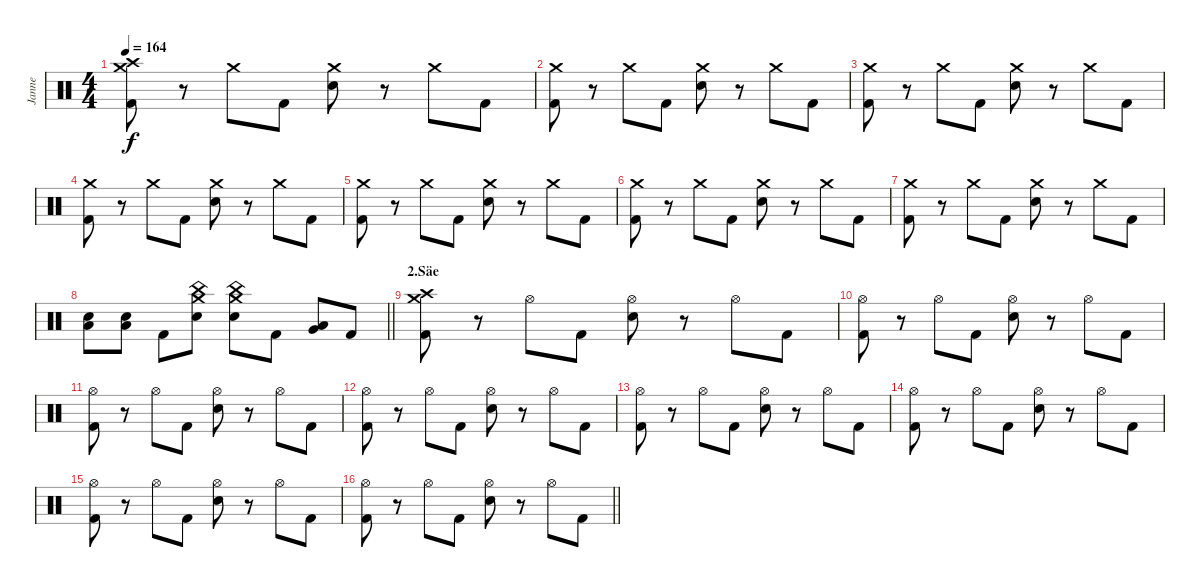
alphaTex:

\track ("Janne" "Janne") {instrument percussion}
\staff {score}
\articulation defaults
\ts (4 4)
\tempo 164
\clef neutral
\ks c
("Crash medium (hit)" "Crash high (hit)" "Kick (hit) 2").8{dy f} r.8 "Crash medium (hit)".8 "Kick (hit) 2".8 ("Crash medium (hit)" "Electric Snare (hit)").8 r.8 "Crash medium (hit)".8 "Kick (hit) 2".8 |
("Crash medium (hit)" "Kick (hit) 2").8 r.8 "Crash medium (hit)".8 "Kick (hit) 2".8 ("Crash medium (hit)" "Electric Snare (hit)").8 r.8 "Crash medium (hit)".8 "Kick (hit) 2".8 |
("Crash medium (hit)" "Kick (hit) 2").8 r.8 "Crash medium (hit)".8 "Kick (hit) 2".8 ("Crash medium (hit)" "Electric Snare (hit)").8 r.8 "Crash medium (hit)".8 "Kick (hit) 2".8 |
("Crash medium (hit)" "Kick (hit) 2").8 r.8 "Crash medium (hit)".8 "Kick (hit) 2".8 ("Crash medium (hit)" "Electric Snare (hit)").8 r.8 "Crash medium (hit)".8 "Kick (hit) 2".8 |
("Crash medium (hit)" "Kick (hit) 2").8 r.8 "Crash medium (hit)".8 "Kick (hit) 2".8 ("Crash medium (hit)" "Electric Snare (hit)").8 r.8 "Crash medium (hit)".8 "Kick (hit) 2".8 |
("Crash medium (hit)" "Kick (hit) 2").8 r.8 "Crash medium (hit)".8 "Kick (hit) 2".8 ("Crash medium (hit)" "Electric Snare (hit)").8 r.8 "Crash medium (hit)".8 "Kick (hit) 2".8 |
("Crash medium (hit)" "Kick (hit) 2").8 r.8 "Crash medium (hit)".8 "Kick (hit) 2".8 ("Crash medium (hit)" "Electric Snare (hit)").8 r.8 "Crash medium (hit)".8 "Kick (hit) 2".8 |
\barLineRight lightlight
("Electric Snare (hit)" "Low Floor Tom (hit)").8 ("Electric Snare (hit)" "Low Floor Tom (hit)").8 "Kick (hit) 2".8 ("China (hit)" "Electric Snare (hit)" "Crash medium (hit)").8 ("China (hit)" "Electric Snare (hit)" "Crash medium (hit)").8 "Kick (hit) 2".8 ("Very Low Tom (hit)" "Low Floor Tom (hit)").8 "Kick (hit) 2".8 |
\section ("" "2.Säe")
("Crash high (hit)" "Crash medium (hit)" "Kick (hit) 2").8 r.8 "Hi-Hat (open)".8 "Kick (hit) 2".8 ("Hi-Hat (open)" "Electric Snare (hit)").8 r.8 "Hi-Hat (open)".8 "Kick (hit) 2".8 |
("Hi-Hat (open)" "Kick (hit) 2").8 r.8 "Hi-Hat (open)".8 "Kick (hit) 2".8 ("Hi-Hat (open)" "Electric Snare (hit)").8 r.8 "Hi-Hat (open)".8 "Kick (hit) 2".8 |
("Hi-Hat (open)" "Kick (hit) 2").8 r.8 "Hi-Hat (open)".8 "Kick (hit) 2".8 ("Hi-Hat (open)" "Electric Snare (hit)").8 r.8 "Hi-Hat (open)".8 "Kick (hit) 2".8 |
("Hi-Hat (open)" "Kick (hit) 2").8 r.8 "Hi-Hat (open)".8 "Kick (hit) 2".8 ("Hi-Hat (open)" "Electric Snare (hit)").8 r.8 "Hi-Hat (open)".8 "Kick (hit) 2".8 |
("Hi-Hat (open)" "Kick (hit) 2").8 r.8 "Hi-Hat (open)".8 "Kick (hit) 2".8 ("Hi-Hat (open)" "Electric Snare (hit)").8 r.8 "Hi-Hat (open)".8 "Kick (hit) 2".8 |
("Hi-Hat (open)" "Kick (hit) 2").8 r.8 "Hi-Hat (open)".8 "Kick (hit) 2".8 ("Hi-Hat (open)" "Electric Snare (hit)").8 r.8 "Hi-Hat (open)".8 "Kick (hit) 2".8 |
("Hi-Hat (open)" "Kick (hit) 2").8 r.8 "Hi-Hat (open)".8 "Kick (hit) 2".8 ("Hi-Hat (open)" "Electric Snare (hit)").8 r.8 "Hi-Hat (open)".8 "Kick (hit) 2".8 |
\barLineRight lightlight
("Hi-Hat (open)" "Kick (hit) 2").8 r.8 "Hi-Hat (open)".8 "Kick (hit) 2".8 ("Hi-Hat (open)" "Electric Snare (hit)").8 r.8 "Hi-Hat (open)".8 "Kick (hit) 2".8
